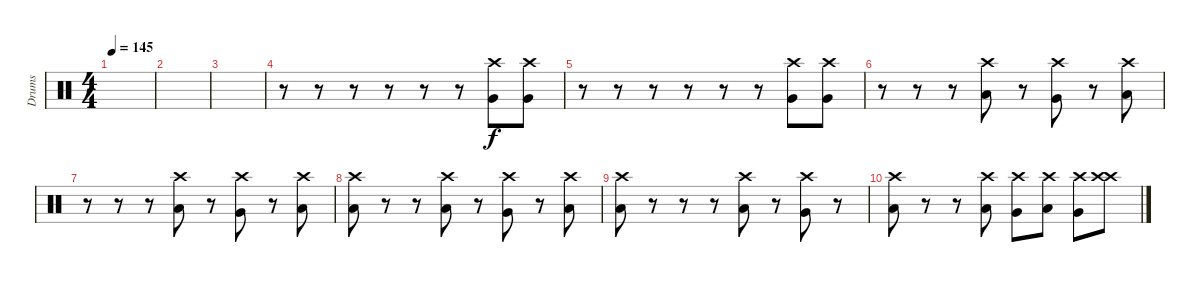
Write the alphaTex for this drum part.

\track ("Drums" "Drums") {instrument percussion}
\staff {score}
\articulation defaults
\ts (4 4)
\tempo 145
\clef neutral
\ks c
|
|
|
r.8 r.8 r.8 r.8 r.8 r.8 ("Very Low Tom (hit)" "Crash high (hit)").8 ("Very Low Tom (hit)" "Crash high (hit)").8 |
r.8 r.8 r.8 r.8 r.8 r.8 ("Very Low Tom (hit)" "Crash high (hit)").8 ("Very Low Tom (hit)" "Crash high (hit)").8 |
r.8 r.8 r.8 ("Low Floor Tom (hit)" "Crash high (hit)").8 r.8 ("Very Low Tom (hit)" "Crash high (hit)").8 r.8 ("Low Tom (hit)" "Crash high (hit)").8 |
r.8 r.8 r.8 ("Low Floor Tom (hit)" "Crash high (hit)").8 r.8 ("Very Low Tom (hit)" "Crash high (hit)").8 r.8 ("Low Tom (hit)" "Crash high (hit)").8 |
("Low Tom (hit)" "Crash high (hit)").8 r.8 r.8 ("Low Floor Tom (hit)" "Crash high (hit)").8 r.8 ("Very Low Tom (hit)" "Crash high (hit)").8 r.8 ("Low Tom (hit)" "Crash high (hit)").8 |
("Low Tom (hit)" "Crash high (hit)").8 r.8 r.8 r.8 ("Low Floor Tom (hit)" "Crash high (hit)").8 r.8 ("Very Low Tom (hit)" "Crash high (hit)").8 r.8 |
("Low Tom (hit)" "Crash high (hit)").8 r.8 r.8 ("Low Tom (hit)" "Crash high (hit)").8 ("Very Low Tom (hit)" "Crash high (hit)").8 ("Low Floor Tom (hit)" "Crash high (hit)").8 ("Very Low Tom (hit)" "Crash high (hit)").8 ("Crash high (hit)" "Crash high (hit)").8
